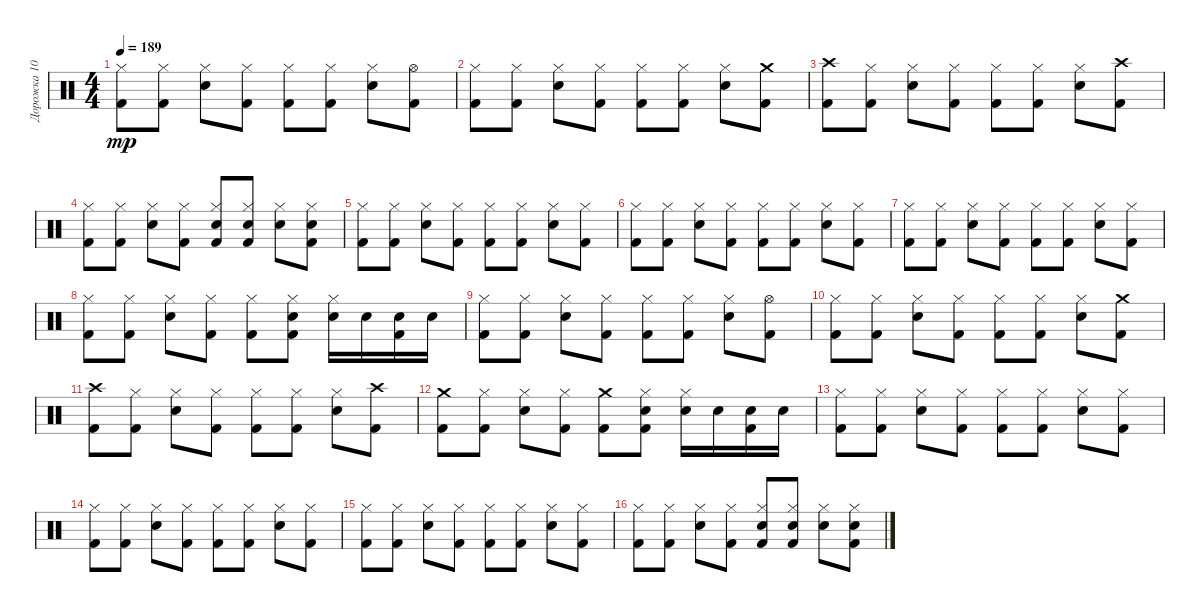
\track ("Дорожка 10" "Дорожка 10") {instrument percussion}
\staff {score}
\articulation defaults
\ts (4 4)
\tempo 189
\clef neutral
\ks c
("Kick (hit) 2" "Hi-Hat (closed)").8{dy mp} ("Kick (hit) 2" "Hi-Hat (closed)").8 ("Snare (hit) 2" "Hi-Hat (closed)").8 ("Kick (hit) 2" "Hi-Hat (closed)").8 ("Kick (hit) 2" "Hi-Hat (closed)").8 ("Kick (hit) 2" "Hi-Hat (closed)").8 ("Snare (hit) 2" "Hi-Hat (closed)").8 ("Kick (hit) 2" "Hi-Hat (open)").8 |
("Kick (hit) 2" "Hi-Hat (closed)").8 ("Kick (hit) 2" "Hi-Hat (closed)").8 ("Snare (hit) 2" "Hi-Hat (closed)").8 ("Kick (hit) 2" "Hi-Hat (closed)").8 ("Kick (hit) 2" "Hi-Hat (closed)").8 ("Kick (hit) 2" "Hi-Hat (closed)").8 ("Snare (hit) 2" "Hi-Hat (closed)").8 ("Kick (hit) 2" "Crash medium (hit)").8 |
("Kick (hit) 2" "Crash high (hit)").8 ("Kick (hit) 2" "Hi-Hat (closed)").8 ("Snare (hit) 2" "Hi-Hat (closed)").8 ("Kick (hit) 2" "Hi-Hat (closed)").8 ("Kick (hit) 2" "Hi-Hat (closed)").8 ("Kick (hit) 2" "Hi-Hat (closed)").8 ("Snare (hit) 2" "Hi-Hat (closed)").8 ("Kick (hit) 2" "Crash high (hit)").8 |
("Kick (hit) 2" "Hi-Hat (closed)").8 ("Kick (hit) 2" "Hi-Hat (closed)").8 ("Snare (hit) 2" "Hi-Hat (closed)").8 ("Kick (hit) 2" "Hi-Hat (closed)").8 ("Kick (hit) 2" "Snare (hit) 2" "Hi-Hat (closed)").8 ("Kick (hit) 2" "Snare (hit) 2" "Hi-Hat (closed)").8 ("Snare (hit) 2" "Hi-Hat (closed)").8 ("Kick (hit) 2" "Snare (hit) 2" "Hi-Hat (closed)").8 |
("Kick (hit) 2" "Hi-Hat (closed)").8 ("Kick (hit) 2" "Hi-Hat (closed)").8 ("Snare (hit) 2" "Hi-Hat (closed)").8 ("Kick (hit) 2" "Hi-Hat (closed)").8 ("Kick (hit) 2" "Hi-Hat (closed)").8 ("Kick (hit) 2" "Hi-Hat (closed)").8 ("Snare (hit) 2" "Hi-Hat (closed)").8 ("Kick (hit) 2" "Hi-Hat (closed)").8 |
("Kick (hit) 2" "Hi-Hat (closed)").8 ("Kick (hit) 2" "Hi-Hat (closed)").8 ("Snare (hit) 2" "Hi-Hat (closed)").8 ("Kick (hit) 2" "Hi-Hat (closed)").8 ("Kick (hit) 2" "Hi-Hat (closed)").8 ("Kick (hit) 2" "Hi-Hat (closed)").8 ("Snare (hit) 2" "Hi-Hat (closed)").8 ("Kick (hit) 2" "Hi-Hat (closed)").8 |
("Kick (hit) 2" "Hi-Hat (closed)").8 ("Kick (hit) 2" "Hi-Hat (closed)").8 ("Snare (hit) 2" "Hi-Hat (closed)").8 ("Kick (hit) 2" "Hi-Hat (closed)").8 ("Kick (hit) 2" "Hi-Hat (closed)").8 ("Kick (hit) 2" "Hi-Hat (closed)").8 ("Snare (hit) 2" "Hi-Hat (closed)").8 ("Kick (hit) 2" "Hi-Hat (closed)").8 |
("Kick (hit) 2" "Hi-Hat (closed)").8 ("Kick (hit) 2" "Hi-Hat (closed)").8 ("Snare (hit) 2" "Hi-Hat (closed)").8 ("Kick (hit) 2" "Hi-Hat (closed)").8 ("Kick (hit) 2" "Hi-Hat (closed)").8 ("Kick (hit) 2" "Snare (hit) 2" "Hi-Hat (closed)").8 ("Snare (hit) 2" "Hi-Hat (closed)").16 "Snare (hit) 2".16 ("Kick (hit) 2" "Snare (hit) 2").16 "Snare (hit) 2".16 |
("Kick (hit) 2" "Hi-Hat (closed)").8 ("Kick (hit) 2" "Hi-Hat (closed)").8 ("Snare (hit) 2" "Hi-Hat (closed)").8 ("Kick (hit) 2" "Hi-Hat (closed)").8 ("Kick (hit) 2" "Hi-Hat (closed)").8 ("Kick (hit) 2" "Hi-Hat (closed)").8 ("Snare (hit) 2" "Hi-Hat (closed)").8 ("Kick (hit) 2" "Hi-Hat (open)").8 |
("Kick (hit) 2" "Hi-Hat (closed)").8 ("Kick (hit) 2" "Hi-Hat (closed)").8 ("Snare (hit) 2" "Hi-Hat (closed)").8 ("Kick (hit) 2" "Hi-Hat (closed)").8 ("Kick (hit) 2" "Hi-Hat (closed)").8 ("Kick (hit) 2" "Hi-Hat (closed)").8 ("Snare (hit) 2" "Hi-Hat (closed)").8 ("Kick (hit) 2" "Crash medium (hit)").8 |
("Kick (hit) 2" "Crash high (hit)").8 ("Kick (hit) 2" "Hi-Hat (closed)").8 ("Snare (hit) 2" "Hi-Hat (closed)").8 ("Kick (hit) 2" "Hi-Hat (closed)").8 ("Kick (hit) 2" "Hi-Hat (closed)").8 ("Kick (hit) 2" "Hi-Hat (closed)").8 ("Snare (hit) 2" "Hi-Hat (closed)").8 ("Kick (hit) 2" "Crash high (hit)").8 |
("Kick (hit) 2" "Crash medium (hit)").8 ("Kick (hit) 2" "Hi-Hat (closed)").8 ("Snare (hit) 2" "Hi-Hat (closed)").8 ("Kick (hit) 2" "Hi-Hat (closed)").8 ("Kick (hit) 2" "Crash medium (hit)").8 ("Kick (hit) 2" "Snare (hit) 2" "Hi-Hat (closed)").8 ("Snare (hit) 2" "Hi-Hat (closed)").16 "Snare (hit) 2".16 ("Kick (hit) 2" "Snare (hit) 2").16 "Snare (hit) 2".16 |
("Kick (hit) 2" "Hi-Hat (closed)").8 ("Kick (hit) 2" "Hi-Hat (closed)").8 ("Snare (hit) 2" "Hi-Hat (closed)").8 ("Kick (hit) 2" "Hi-Hat (closed)").8 ("Kick (hit) 2" "Hi-Hat (closed)").8 ("Kick (hit) 2" "Hi-Hat (closed)").8 ("Snare (hit) 2" "Hi-Hat (closed)").8 ("Kick (hit) 2" "Hi-Hat (closed)").8 |
("Kick (hit) 2" "Hi-Hat (closed)").8 ("Kick (hit) 2" "Hi-Hat (closed)").8 ("Snare (hit) 2" "Hi-Hat (closed)").8 ("Kick (hit) 2" "Hi-Hat (closed)").8 ("Kick (hit) 2" "Hi-Hat (closed)").8 ("Kick (hit) 2" "Hi-Hat (closed)").8 ("Snare (hit) 2" "Hi-Hat (closed)").8 ("Kick (hit) 2" "Hi-Hat (closed)").8 |
("Kick (hit) 2" "Hi-Hat (closed)").8 ("Kick (hit) 2" "Hi-Hat (closed)").8 ("Snare (hit) 2" "Hi-Hat (closed)").8 ("Kick (hit) 2" "Hi-Hat (closed)").8 ("Kick (hit) 2" "Hi-Hat (closed)").8 ("Kick (hit) 2" "Hi-Hat (closed)").8 ("Snare (hit) 2" "Hi-Hat (closed)").8 ("Kick (hit) 2" "Hi-Hat (closed)").8 |
("Kick (hit) 2" "Hi-Hat (closed)").8 ("Kick (hit) 2" "Hi-Hat (closed)").8 ("Snare (hit) 2" "Hi-Hat (closed)").8 ("Kick (hit) 2" "Hi-Hat (closed)").8 ("Kick (hit) 2" "Snare (hit) 2" "Hi-Hat (closed)").8 ("Kick (hit) 2" "Snare (hit) 2" "Hi-Hat (closed)").8 ("Snare (hit) 2" "Hi-Hat (closed)").8 ("Kick (hit) 2" "Snare (hit) 2" "Hi-Hat (closed)").8
